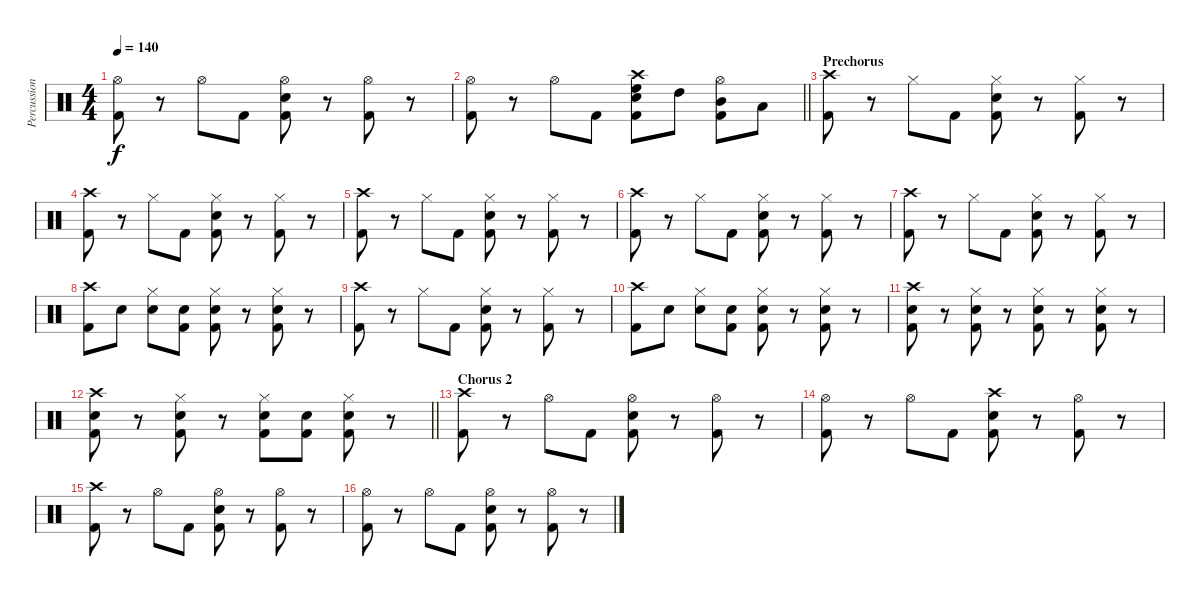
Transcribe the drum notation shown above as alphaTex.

\track ("Percussion" "Percussion") {instrument percussion}
\staff
\articulation defaults
\ts (4 4)
\tempo 140
\clef neutral
\ks c
("Hi-Hat (open)" "Kick (hit) 2").8{dy f} r.8 "Hi-Hat (open)".8 "Kick (hit) 2".8 ("Hi-Hat (open)" "Snare (hit) 2" "Kick (hit) 2").8 r.8 ("Hi-Hat (open)" "Kick (hit) 2").8 r.8 |
\barLineRight lightlight
("Hi-Hat (open)" "Kick (hit) 2").8 r.8 "Hi-Hat (open)".8 "Kick (hit) 2".8 ("Crash high (hit)" "High Floor Tom (hit)" "Snare (hit) 2" "Kick (hit) 2").8 "High Tom (hit)".8 ("Hi-Hat (open)" "Mid Tom (hit)" "Kick (hit) 2").8 "Low Tom (hit)".8 |
\section ("" "Prechorus")
("Crash high (hit)" "Kick (hit) 2").8 r.8 "Hi-Hat (closed)".8 "Kick (hit) 2".8 ("Hi-Hat (closed)" "Snare (hit) 2" "Kick (hit) 2").8 r.8 ("Hi-Hat (closed)" "Kick (hit) 2").8 r.8 |
("Crash high (hit)" "Kick (hit) 2").8 r.8 "Hi-Hat (closed)".8 "Kick (hit) 2".8 ("Hi-Hat (closed)" "Snare (hit) 2" "Kick (hit) 2").8 r.8 ("Hi-Hat (closed)" "Kick (hit) 2").8 r.8 |
("Crash high (hit)" "Kick (hit) 2").8 r.8 "Hi-Hat (closed)".8 "Kick (hit) 2".8 ("Hi-Hat (closed)" "Snare (hit) 2" "Kick (hit) 2").8 r.8 ("Hi-Hat (closed)" "Kick (hit) 2").8 r.8 |
("Crash high (hit)" "Kick (hit) 2").8 r.8 "Hi-Hat (closed)".8 "Kick (hit) 2".8 ("Hi-Hat (closed)" "Snare (hit) 2" "Kick (hit) 2").8 r.8 ("Hi-Hat (closed)" "Kick (hit) 2").8 r.8 |
("Crash high (hit)" "Kick (hit) 2").8 r.8 "Hi-Hat (closed)".8 "Kick (hit) 2".8 ("Hi-Hat (closed)" "Snare (hit) 2" "Kick (hit) 2").8 r.8 ("Hi-Hat (closed)" "Kick (hit) 2").8 r.8 |
("Crash high (hit)" "Kick (hit) 2").8 "Snare (hit) 2".8 ("Hi-Hat (closed)" "Snare (hit) 2").8 ("Snare (hit) 2" "Kick (hit) 2").8 ("Hi-Hat (closed)" "Snare (hit) 2" "Kick (hit) 2").8 r.8 ("Hi-Hat (closed)" "Snare (hit) 2" "Kick (hit) 2").8 r.8 |
("Crash high (hit)" "Kick (hit) 2").8 r.8 "Hi-Hat (closed)".8 "Kick (hit) 2".8 ("Hi-Hat (closed)" "Snare (hit) 2" "Kick (hit) 2").8 r.8 ("Hi-Hat (closed)" "Kick (hit) 2").8 r.8 |
("Crash high (hit)" "Kick (hit) 2").8 "Snare (hit) 2".8 ("Hi-Hat (closed)" "Snare (hit) 2").8 ("Snare (hit) 2" "Kick (hit) 2").8 ("Hi-Hat (closed)" "Snare (hit) 2" "Kick (hit) 2").8 r.8 ("Hi-Hat (closed)" "Snare (hit) 2" "Kick (hit) 2").8 r.8 |
("Crash high (hit)" "Snare (hit) 2" "Kick (hit) 2").8 r.8 ("Hi-Hat (closed)" "Snare (hit) 2" "Kick (hit) 2").8 r.8 ("Hi-Hat (closed)" "Snare (hit) 2" "Kick (hit) 2").8 r.8 ("Hi-Hat (closed)" "Snare (hit) 2" "Kick (hit) 2").8 r.8 |
\barLineRight lightlight
("Crash high (hit)" "Snare (hit) 2" "Kick (hit) 2").8 r.8 ("Hi-Hat (closed)" "Snare (hit) 2" "Kick (hit) 2").8 r.8 ("Hi-Hat (closed)" "Snare (hit) 2" "Kick (hit) 2").8 ("Snare (hit) 2" "Kick (hit) 2").8 ("Hi-Hat (closed)" "Snare (hit) 2" "Kick (hit) 2").8 r.8 |
\section ("" "Chorus 2")
("Crash high (hit)" "Kick (hit) 2").8 r.8 "Hi-Hat (open)".8 "Kick (hit) 2".8 ("Hi-Hat (open)" "Snare (hit) 2" "Kick (hit) 2").8 r.8 ("Hi-Hat (open)" "Kick (hit) 2").8 r.8 |
("Hi-Hat (open)" "Kick (hit) 2").8 r.8 "Hi-Hat (open)".8 "Kick (hit) 2".8 ("Crash high (hit)" "Snare (hit) 2" "Kick (hit) 2").8 r.8 ("Hi-Hat (open)" "Kick (hit) 2").8 r.8 |
("Crash high (hit)" "Kick (hit) 2").8 r.8 "Hi-Hat (open)".8 "Kick (hit) 2".8 ("Hi-Hat (open)" "Snare (hit) 2" "Kick (hit) 2").8 r.8 ("Hi-Hat (open)" "Kick (hit) 2").8 r.8 |
("Hi-Hat (open)" "Kick (hit) 2").8 r.8 "Hi-Hat (open)".8 "Kick (hit) 2".8 ("Hi-Hat (open)" "Snare (hit) 2" "Kick (hit) 2").8 r.8 ("Hi-Hat (open)" "Kick (hit) 2").8 r.8
